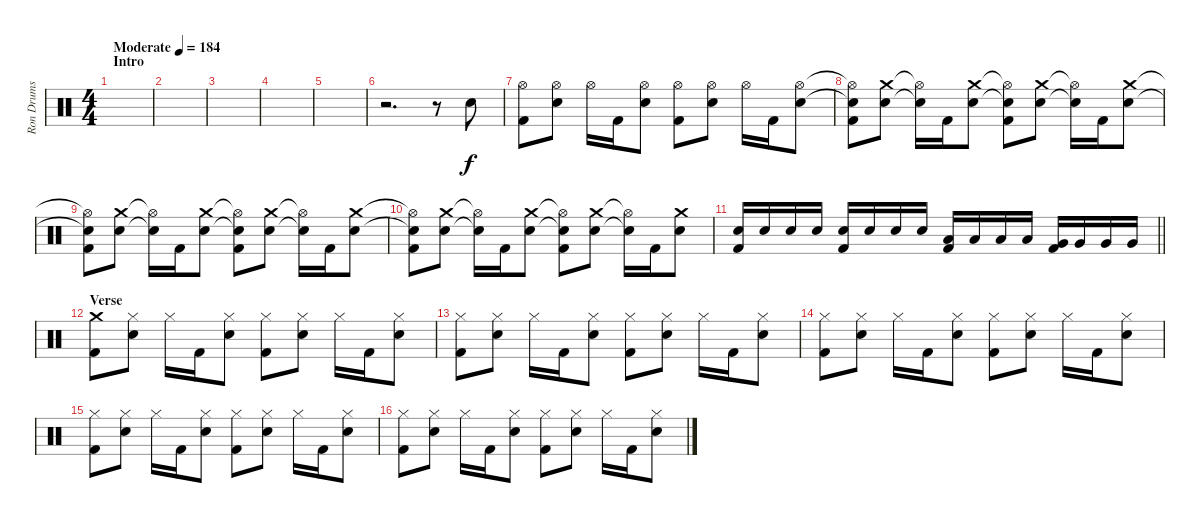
\track ("Ron Drums and Percussion" "Ron Drums ") {instrument percussion}
\staff {score}
\articulation defaults
\ts (4 4)
\section ("" "Intro")
\tempo (184 "Moderate")
\clef neutral
\ks c
|
|
|
|
|
r.2{d} r.8 "Electric Snare (hit)".8 |
("Hi-Hat (open)" "Kick (hit) 2").8 ("Hi-Hat (open)" "Electric Snare (hit)").8 "Hi-Hat (open)".16 "Kick (hit) 2".16 ("Hi-Hat (open)" "Electric Snare (hit)").8 ("Hi-Hat (open)" "Kick (hit) 2").8 ("Hi-Hat (open)" "Electric Snare (hit)").8 "Hi-Hat (open)".16 "Kick (hit) 2".16 ("Hi-Hat (open)" "Electric Snare (hit)").8 |
("Hi-Hat (open)"{t} "Snare (hit)"{t} "Kick (hit) 2").8 ("Crash medium (hit)" "Electric Snare (hit)").8 ("Hi-Hat (open)"{t} "Snare (hit)"{t}).16 "Kick (hit) 2".16 ("Crash medium (hit)" "Electric Snare (hit)").8 ("Hi-Hat (open)"{t} "Snare (hit)"{t} "Kick (hit) 2").8 ("Crash medium (hit)" "Electric Snare (hit)").8 ("Hi-Hat (open)"{t} "Snare (hit)"{t}).16 "Kick (hit) 2".16 ("Crash medium (hit)" "Electric Snare (hit)").8 |
("Hi-Hat (open)"{t} "Snare (hit)"{t} "Kick (hit) 2").8 ("Crash medium (hit)" "Electric Snare (hit)").8 ("Hi-Hat (open)"{t} "Snare (hit)"{t}).16 "Kick (hit) 2".16 ("Crash medium (hit)" "Electric Snare (hit)").8 ("Hi-Hat (open)"{t} "Snare (hit)"{t} "Kick (hit) 2").8 ("Crash medium (hit)" "Electric Snare (hit)").8 ("Hi-Hat (open)"{t} "Snare (hit)"{t}).16 "Kick (hit) 2".16 ("Crash medium (hit)" "Electric Snare (hit)").8 |
("Hi-Hat (open)"{t} "Snare (hit)"{t} "Kick (hit) 2").8 ("Crash medium (hit)" "Electric Snare (hit)").8 ("Hi-Hat (open)"{t} "Snare (hit)"{t}).16 "Kick (hit) 2".16 ("Crash medium (hit)" "Electric Snare (hit)").8 ("Hi-Hat (open)"{t} "Snare (hit)"{t} "Kick (hit) 2").8 ("Crash medium (hit)" "Electric Snare (hit)").8 ("Hi-Hat (open)"{t} "Snare (hit)"{t}).16 "Kick (hit) 2".16 ("Crash medium (hit)" "Electric Snare (hit)").8 |
\barLineRight lightlight
("Electric Snare (hit)" "Kick (hit) 2").16 "Electric Snare (hit)".16 "Electric Snare (hit)".16 "Electric Snare (hit)".16 ("Electric Snare (hit)" "Kick (hit) 2").16 "Electric Snare (hit)".16 "Electric Snare (hit)".16 "Electric Snare (hit)".16 ("Low Tom (hit)" "Kick (hit) 2").16 "Low Tom (hit)".16 "Low Tom (hit)".16 "Low Tom (hit)".16 ("Very Low Tom (hit)" "Kick (hit) 2").16 "Very Low Tom (hit)".16 "Very Low Tom (hit)".16 "Very Low Tom (hit)".16 |
\section ("" "Verse")
("Crash medium (hit)" "Kick (hit) 2").8 ("Hi-Hat (closed)" "Electric Snare (hit)").8 "Hi-Hat (closed)".16 "Kick (hit) 2".16 ("Hi-Hat (closed)" "Electric Snare (hit)").8 ("Hi-Hat (closed)" "Kick (hit) 2").8 ("Hi-Hat (closed)" "Electric Snare (hit)").8 "Hi-Hat (closed)".16 "Kick (hit) 2".16 ("Hi-Hat (closed)" "Electric Snare (hit)").8 |
("Hi-Hat (closed)" "Kick (hit) 2").8 ("Hi-Hat (closed)" "Electric Snare (hit)").8 "Hi-Hat (closed)".16 "Kick (hit) 2".16 ("Hi-Hat (closed)" "Electric Snare (hit)").8 ("Hi-Hat (closed)" "Kick (hit) 2").8 ("Hi-Hat (closed)" "Electric Snare (hit)").8 "Hi-Hat (closed)".16 "Kick (hit) 2".16 ("Hi-Hat (closed)" "Electric Snare (hit)").8 |
("Hi-Hat (closed)" "Kick (hit) 2").8 ("Hi-Hat (closed)" "Electric Snare (hit)").8 "Hi-Hat (closed)".16 "Kick (hit) 2".16 ("Hi-Hat (closed)" "Electric Snare (hit)").8 ("Hi-Hat (closed)" "Kick (hit) 2").8 ("Hi-Hat (closed)" "Electric Snare (hit)").8 "Hi-Hat (closed)".16 "Kick (hit) 2".16 ("Hi-Hat (closed)" "Electric Snare (hit)").8 |
("Hi-Hat (closed)" "Kick (hit) 2").8 ("Hi-Hat (closed)" "Electric Snare (hit)").8 "Hi-Hat (closed)".16 "Kick (hit) 2".16 ("Hi-Hat (closed)" "Electric Snare (hit)").8 ("Hi-Hat (closed)" "Kick (hit) 2").8 ("Hi-Hat (closed)" "Electric Snare (hit)").8 "Hi-Hat (closed)".16 "Kick (hit) 2".16 ("Hi-Hat (closed)" "Electric Snare (hit)").8 |
("Hi-Hat (closed)" "Kick (hit) 2").8 ("Hi-Hat (closed)" "Electric Snare (hit)").8 "Hi-Hat (closed)".16 "Kick (hit) 2".16 ("Hi-Hat (closed)" "Electric Snare (hit)").8 ("Hi-Hat (closed)" "Kick (hit) 2").8 ("Hi-Hat (closed)" "Electric Snare (hit)").8 "Hi-Hat (closed)".16 "Kick (hit) 2".16 ("Hi-Hat (closed)" "Electric Snare (hit)").8
